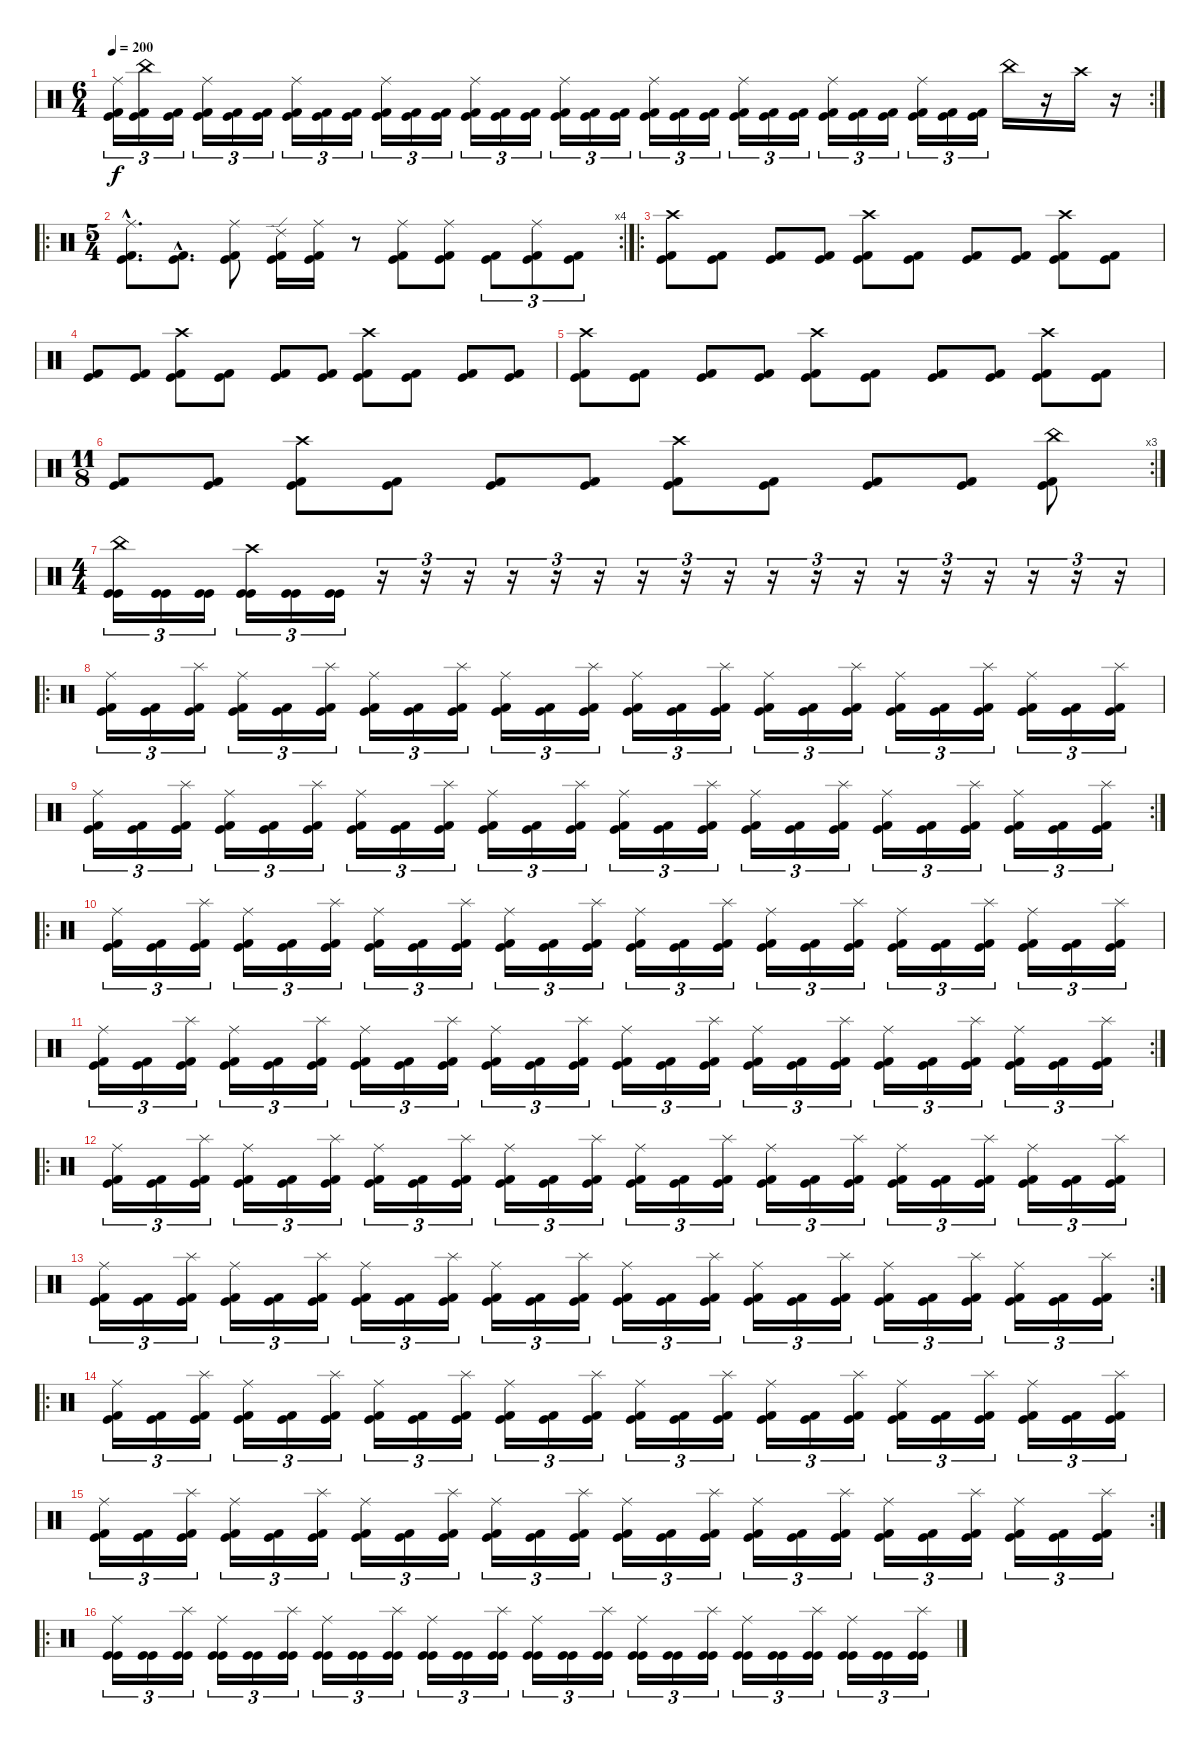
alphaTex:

\track "" {instrument percussion}
\staff {score}
\articulation defaults
\rc 2
\ts (6 4)
\tempo 200
\clef neutral
\ks c
("Ride (middle)" "Kick (hit)" "Kick (hit) 2").16{tu (3 2) dy f} ("China (hit)" "Kick (hit)" "Kick (hit) 2").16{tu (3 2)} ("Kick (hit)" "Kick (hit) 2").16{tu (3 2)} ("Ride (middle)" "Kick (hit)" "Kick (hit) 2").16{tu (3 2)} ("Kick (hit)" "Kick (hit) 2").16{tu (3 2)} ("Kick (hit)" "Kick (hit) 2").16{tu (3 2)} ("Ride (middle)" "Kick (hit)" "Kick (hit) 2").16{tu (3 2)} ("Kick (hit)" "Kick (hit) 2").16{tu (3 2)} ("Kick (hit)" "Kick (hit) 2").16{tu (3 2)} ("Ride (middle)" "Kick (hit)" "Kick (hit) 2").16{tu (3 2)} ("Kick (hit)" "Kick (hit) 2").16{tu (3 2)} ("Kick (hit)" "Kick (hit) 2").16{tu (3 2)} ("Ride (middle)" "Kick (hit)" "Kick (hit) 2").16{tu (3 2)} ("Kick (hit)" "Kick (hit) 2").16{tu (3 2)} ("Kick (hit)" "Kick (hit) 2").16{tu (3 2)} ("Ride (middle)" "Kick (hit)" "Kick (hit) 2").16{tu (3 2)} ("Kick (hit)" "Kick (hit) 2").16{tu (3 2)} ("Kick (hit)" "Kick (hit) 2").16{tu (3 2)} ("Ride (middle)" "Kick (hit)" "Kick (hit) 2").16{tu (3 2)} ("Kick (hit)" "Kick (hit) 2").16{tu (3 2)} ("Kick (hit)" "Kick (hit) 2").16{tu (3 2)} ("Ride (middle)" "Kick (hit)" "Kick (hit) 2").16{tu (3 2)} ("Kick (hit)" "Kick (hit) 2").16{tu (3 2)} ("Kick (hit)" "Kick (hit) 2").16{tu (3 2)} ("Ride (middle)" "Kick (hit)" "Kick (hit) 2").16{tu (3 2)} ("Kick (hit)" "Kick (hit) 2").16{tu (3 2)} ("Kick (hit)" "Kick (hit) 2").16{tu (3 2)} ("Ride (middle)" "Kick (hit)" "Kick (hit) 2").16{tu (3 2)} ("Kick (hit)" "Kick (hit) 2").16{tu (3 2)} ("Kick (hit)" "Kick (hit) 2").16{tu (3 2)} "China (hit)".16 r.16 "Crash high (hit)".16 r.16 |
\ro
\rc 4
\ts (5 4)
("Ride (middle)"{hac} "Kick (hit)"{hac} "Kick (hit) 2"{hac}).8{d} ("Kick (hit)"{hac} "Kick (hit) 2"{hac}).8{d} ("Ride (middle)" "Kick (hit)" "Kick (hit) 2").8 ("Ride (edge) 2" "Kick (hit)" "Kick (hit) 2").16 ("Ride (middle)" "Kick (hit)" "Kick (hit) 2").16 r.8 ("Ride (middle)" "Kick (hit)" "Kick (hit) 2").8 ("Ride (middle)" "Kick (hit)" "Kick (hit) 2").8 ("Kick (hit)" "Kick (hit) 2").8{tu (3 2)} ("Ride (middle)" "Kick (hit)" "Kick (hit) 2").8{tu (3 2)} ("Kick (hit)" "Kick (hit) 2").8{tu (3 2)} |
\ro
("Crash high (hit)" "Kick (hit)" "Kick (hit) 2").8 ("Kick (hit)" "Kick (hit) 2").8 ("Kick (hit)" "Kick (hit) 2").8 ("Kick (hit)" "Kick (hit) 2").8 ("Crash high (hit)" "Kick (hit)" "Kick (hit) 2").8 ("Kick (hit)" "Kick (hit) 2").8 ("Kick (hit)" "Kick (hit) 2").8 ("Kick (hit)" "Kick (hit) 2").8 ("Crash high (hit)" "Kick (hit)" "Kick (hit) 2").8 ("Kick (hit)" "Kick (hit) 2").8 |
("Kick (hit)" "Kick (hit) 2").8 ("Kick (hit)" "Kick (hit) 2").8 ("Crash high (hit)" "Kick (hit)" "Kick (hit) 2").8 ("Kick (hit)" "Kick (hit) 2").8 ("Kick (hit)" "Kick (hit) 2").8 ("Kick (hit)" "Kick (hit) 2").8 ("Crash high (hit)" "Kick (hit)" "Kick (hit) 2").8 ("Kick (hit)" "Kick (hit) 2").8 ("Kick (hit)" "Kick (hit) 2").8 ("Kick (hit)" "Kick (hit) 2").8 |
("Crash high (hit)" "Kick (hit)" "Kick (hit) 2").8 ("Kick (hit)" "Kick (hit) 2").8 ("Kick (hit)" "Kick (hit) 2").8 ("Kick (hit)" "Kick (hit) 2").8 ("Crash high (hit)" "Kick (hit)" "Kick (hit) 2").8 ("Kick (hit)" "Kick (hit) 2").8 ("Kick (hit)" "Kick (hit) 2").8 ("Kick (hit)" "Kick (hit) 2").8 ("Crash high (hit)" "Kick (hit)" "Kick (hit) 2").8 ("Kick (hit)" "Kick (hit) 2").8 |
\rc 3
\ts (11 8)
("Kick (hit)" "Kick (hit) 2").8 ("Kick (hit)" "Kick (hit) 2").8 ("Crash high (hit)" "Kick (hit)" "Kick (hit) 2").8 ("Kick (hit)" "Kick (hit) 2").8 ("Kick (hit)" "Kick (hit) 2").8 ("Kick (hit)" "Kick (hit) 2").8 ("Crash high (hit)" "Kick (hit)" "Kick (hit) 2").8 ("Kick (hit)" "Kick (hit) 2").8 ("Kick (hit)" "Kick (hit) 2").8 ("Kick (hit)" "Kick (hit) 2").8 ("China (hit)" "Kick (hit)" "Kick (hit) 2").8 |
\ts (4 4)
("China (hit)" "Kick (hit)" "Kick (hit)").16{tu (3 2)} ("Kick (hit)" "Kick (hit)").16{tu (3 2)} ("Kick (hit)" "Kick (hit)").16{tu (3 2)} ("Crash high (hit)" "Kick (hit)" "Kick (hit)").16{tu (3 2)} ("Kick (hit)" "Kick (hit)").16{tu (3 2)} ("Kick (hit)" "Kick (hit)").16{tu (3 2)} r.16{tu (3 2)} r.16{tu (3 2)} r.16{tu (3 2)} r.16{tu (3 2)} r.16{tu (3 2)} r.16{tu (3 2)} r.16{tu (3 2)} r.16{tu (3 2)} r.16{tu (3 2)} r.16{tu (3 2)} r.16{tu (3 2)} r.16{tu (3 2)} r.16{tu (3 2)} r.16{tu (3 2)} r.16{tu (3 2)} r.16{tu (3 2)} r.16{tu (3 2)} r.16{tu (3 2)} |
\ro
("Ride (middle)" "Kick (hit)" "Kick (hit) 2").16{tu (3 2)} ("Kick (hit)" "Kick (hit) 2").16{tu (3 2)} ("Splash (hit)" "Kick (hit)" "Kick (hit) 2").16{tu (3 2)} ("Ride (middle)" "Kick (hit)" "Kick (hit) 2").16{tu (3 2)} ("Kick (hit)" "Kick (hit) 2").16{tu (3 2)} ("Splash (hit)" "Kick (hit)" "Kick (hit) 2").16{tu (3 2)} ("Ride (middle)" "Kick (hit)" "Kick (hit) 2").16{tu (3 2)} ("Kick (hit)" "Kick (hit) 2").16{tu (3 2)} ("Splash (hit)" "Kick (hit)" "Kick (hit) 2").16{tu (3 2)} ("Ride (middle)" "Kick (hit)" "Kick (hit) 2").16{tu (3 2)} ("Kick (hit)" "Kick (hit) 2").16{tu (3 2)} ("Splash (hit)" "Kick (hit)" "Kick (hit) 2").16{tu (3 2)} ("Ride (middle)" "Kick (hit)" "Kick (hit) 2").16{tu (3 2)} ("Kick (hit)" "Kick (hit) 2").16{tu (3 2)} ("Splash (hit)" "Kick (hit)" "Kick (hit) 2").16{tu (3 2)} ("Ride (middle)" "Kick (hit)" "Kick (hit) 2").16{tu (3 2)} ("Kick (hit)" "Kick (hit) 2").16{tu (3 2)} ("Splash (hit)" "Kick (hit)" "Kick (hit) 2").16{tu (3 2)} ("Ride (middle)" "Kick (hit)" "Kick (hit) 2").16{tu (3 2)} ("Kick (hit)" "Kick (hit) 2").16{tu (3 2)} ("Splash (hit)" "Kick (hit)" "Kick (hit) 2").16{tu (3 2)} ("Ride (middle)" "Kick (hit)" "Kick (hit) 2").16{tu (3 2)} ("Kick (hit)" "Kick (hit) 2").16{tu (3 2)} ("Splash (hit)" "Kick (hit)" "Kick (hit) 2").16{tu (3 2)} |
\rc 2
("Ride (middle)" "Kick (hit)" "Kick (hit) 2").16{tu (3 2)} ("Kick (hit)" "Kick (hit) 2").16{tu (3 2)} ("Splash (hit)" "Kick (hit)" "Kick (hit) 2").16{tu (3 2)} ("Ride (middle)" "Kick (hit)" "Kick (hit) 2").16{tu (3 2)} ("Kick (hit)" "Kick (hit) 2").16{tu (3 2)} ("Splash (hit)" "Kick (hit)" "Kick (hit) 2").16{tu (3 2)} ("Ride (middle)" "Kick (hit)" "Kick (hit) 2").16{tu (3 2)} ("Kick (hit)" "Kick (hit) 2").16{tu (3 2)} ("Splash (hit)" "Kick (hit)" "Kick (hit) 2").16{tu (3 2)} ("Ride (middle)" "Kick (hit)" "Kick (hit) 2").16{tu (3 2)} ("Kick (hit)" "Kick (hit) 2").16{tu (3 2)} ("Splash (hit)" "Kick (hit)" "Kick (hit) 2").16{tu (3 2)} ("Ride (middle)" "Kick (hit)" "Kick (hit) 2").16{tu (3 2)} ("Kick (hit)" "Kick (hit) 2").16{tu (3 2)} ("Splash (hit)" "Kick (hit)" "Kick (hit) 2").16{tu (3 2)} ("Ride (middle)" "Kick (hit)" "Kick (hit) 2").16{tu (3 2)} ("Kick (hit)" "Kick (hit) 2").16{tu (3 2)} ("Splash (hit)" "Kick (hit)" "Kick (hit) 2").16{tu (3 2)} ("Ride (middle)" "Kick (hit)" "Kick (hit) 2").16{tu (3 2)} ("Kick (hit)" "Kick (hit) 2").16{tu (3 2)} ("Splash (hit)" "Kick (hit)" "Kick (hit) 2").16{tu (3 2)} ("Ride (middle)" "Kick (hit)" "Kick (hit) 2").16{tu (3 2)} ("Kick (hit)" "Kick (hit) 2").16{tu (3 2)} ("Splash (hit)" "Kick (hit)" "Kick (hit) 2").16{tu (3 2)} |
\ro
("Ride (middle)" "Kick (hit)" "Kick (hit) 2").16{tu (3 2)} ("Kick (hit)" "Kick (hit) 2").16{tu (3 2)} ("Splash (hit)" "Kick (hit)" "Kick (hit) 2").16{tu (3 2)} ("Ride (middle)" "Kick (hit)" "Kick (hit) 2").16{tu (3 2)} ("Kick (hit)" "Kick (hit) 2").16{tu (3 2)} ("Splash (hit)" "Kick (hit)" "Kick (hit) 2").16{tu (3 2)} ("Ride (middle)" "Kick (hit)" "Kick (hit) 2").16{tu (3 2)} ("Kick (hit)" "Kick (hit) 2").16{tu (3 2)} ("Splash (hit)" "Kick (hit)" "Kick (hit) 2").16{tu (3 2)} ("Ride (middle)" "Kick (hit)" "Kick (hit) 2").16{tu (3 2)} ("Kick (hit)" "Kick (hit) 2").16{tu (3 2)} ("Splash (hit)" "Kick (hit)" "Kick (hit) 2").16{tu (3 2)} ("Ride (middle)" "Kick (hit)" "Kick (hit) 2").16{tu (3 2)} ("Kick (hit)" "Kick (hit) 2").16{tu (3 2)} ("Splash (hit)" "Kick (hit)" "Kick (hit) 2").16{tu (3 2)} ("Ride (middle)" "Kick (hit)" "Kick (hit) 2").16{tu (3 2)} ("Kick (hit)" "Kick (hit) 2").16{tu (3 2)} ("Splash (hit)" "Kick (hit)" "Kick (hit) 2").16{tu (3 2)} ("Ride (middle)" "Kick (hit)" "Kick (hit) 2").16{tu (3 2)} ("Kick (hit)" "Kick (hit) 2").16{tu (3 2)} ("Splash (hit)" "Kick (hit)" "Kick (hit) 2").16{tu (3 2)} ("Ride (middle)" "Kick (hit)" "Kick (hit) 2").16{tu (3 2)} ("Kick (hit)" "Kick (hit) 2").16{tu (3 2)} ("Splash (hit)" "Kick (hit)" "Kick (hit) 2").16{tu (3 2)} |
\rc 2
("Ride (middle)" "Kick (hit)" "Kick (hit) 2").16{tu (3 2)} ("Kick (hit)" "Kick (hit) 2").16{tu (3 2)} ("Splash (hit)" "Kick (hit)" "Kick (hit) 2").16{tu (3 2)} ("Ride (middle)" "Kick (hit)" "Kick (hit) 2").16{tu (3 2)} ("Kick (hit)" "Kick (hit) 2").16{tu (3 2)} ("Splash (hit)" "Kick (hit)" "Kick (hit) 2").16{tu (3 2)} ("Ride (middle)" "Kick (hit)" "Kick (hit) 2").16{tu (3 2)} ("Kick (hit)" "Kick (hit) 2").16{tu (3 2)} ("Splash (hit)" "Kick (hit)" "Kick (hit) 2").16{tu (3 2)} ("Ride (middle)" "Kick (hit)" "Kick (hit) 2").16{tu (3 2)} ("Kick (hit)" "Kick (hit) 2").16{tu (3 2)} ("Splash (hit)" "Kick (hit)" "Kick (hit) 2").16{tu (3 2)} ("Ride (middle)" "Kick (hit)" "Kick (hit) 2").16{tu (3 2)} ("Kick (hit)" "Kick (hit) 2").16{tu (3 2)} ("Splash (hit)" "Kick (hit)" "Kick (hit) 2").16{tu (3 2)} ("Ride (middle)" "Kick (hit)" "Kick (hit) 2").16{tu (3 2)} ("Kick (hit)" "Kick (hit) 2").16{tu (3 2)} ("Splash (hit)" "Kick (hit)" "Kick (hit) 2").16{tu (3 2)} ("Ride (middle)" "Kick (hit)" "Kick (hit) 2").16{tu (3 2)} ("Kick (hit)" "Kick (hit) 2").16{tu (3 2)} ("Splash (hit)" "Kick (hit)" "Kick (hit) 2").16{tu (3 2)} ("Ride (middle)" "Kick (hit)" "Kick (hit) 2").16{tu (3 2)} ("Kick (hit)" "Kick (hit) 2").16{tu (3 2)} ("Splash (hit)" "Kick (hit)" "Kick (hit) 2").16{tu (3 2)} |
\ro
("Ride (middle)" "Kick (hit)" "Kick (hit) 2").16{tu (3 2)} ("Kick (hit)" "Kick (hit) 2").16{tu (3 2)} ("Splash (hit)" "Kick (hit)" "Kick (hit) 2").16{tu (3 2)} ("Ride (middle)" "Kick (hit)" "Kick (hit) 2").16{tu (3 2)} ("Kick (hit)" "Kick (hit) 2").16{tu (3 2)} ("Splash (hit)" "Kick (hit)" "Kick (hit) 2").16{tu (3 2)} ("Ride (middle)" "Kick (hit)" "Kick (hit) 2").16{tu (3 2)} ("Kick (hit)" "Kick (hit) 2").16{tu (3 2)} ("Splash (hit)" "Kick (hit)" "Kick (hit) 2").16{tu (3 2)} ("Ride (middle)" "Kick (hit)" "Kick (hit) 2").16{tu (3 2)} ("Kick (hit)" "Kick (hit) 2").16{tu (3 2)} ("Splash (hit)" "Kick (hit)" "Kick (hit) 2").16{tu (3 2)} ("Ride (middle)" "Kick (hit)" "Kick (hit) 2").16{tu (3 2)} ("Kick (hit)" "Kick (hit) 2").16{tu (3 2)} ("Splash (hit)" "Kick (hit)" "Kick (hit) 2").16{tu (3 2)} ("Ride (middle)" "Kick (hit)" "Kick (hit) 2").16{tu (3 2)} ("Kick (hit)" "Kick (hit) 2").16{tu (3 2)} ("Splash (hit)" "Kick (hit)" "Kick (hit) 2").16{tu (3 2)} ("Ride (middle)" "Kick (hit)" "Kick (hit) 2").16{tu (3 2)} ("Kick (hit)" "Kick (hit) 2").16{tu (3 2)} ("Splash (hit)" "Kick (hit)" "Kick (hit) 2").16{tu (3 2)} ("Ride (middle)" "Kick (hit)" "Kick (hit) 2").16{tu (3 2)} ("Kick (hit)" "Kick (hit) 2").16{tu (3 2)} ("Splash (hit)" "Kick (hit)" "Kick (hit) 2").16{tu (3 2)} |
\rc 2
("Ride (middle)" "Kick (hit)" "Kick (hit) 2").16{tu (3 2)} ("Kick (hit)" "Kick (hit) 2").16{tu (3 2)} ("Splash (hit)" "Kick (hit)" "Kick (hit) 2").16{tu (3 2)} ("Ride (middle)" "Kick (hit)" "Kick (hit) 2").16{tu (3 2)} ("Kick (hit)" "Kick (hit) 2").16{tu (3 2)} ("Splash (hit)" "Kick (hit)" "Kick (hit) 2").16{tu (3 2)} ("Ride (middle)" "Kick (hit)" "Kick (hit) 2").16{tu (3 2)} ("Kick (hit)" "Kick (hit) 2").16{tu (3 2)} ("Splash (hit)" "Kick (hit)" "Kick (hit) 2").16{tu (3 2)} ("Ride (middle)" "Kick (hit)" "Kick (hit) 2").16{tu (3 2)} ("Kick (hit)" "Kick (hit) 2").16{tu (3 2)} ("Splash (hit)" "Kick (hit)" "Kick (hit) 2").16{tu (3 2)} ("Ride (middle)" "Kick (hit)" "Kick (hit) 2").16{tu (3 2)} ("Kick (hit)" "Kick (hit) 2").16{tu (3 2)} ("Splash (hit)" "Kick (hit)" "Kick (hit) 2").16{tu (3 2)} ("Ride (middle)" "Kick (hit)" "Kick (hit) 2").16{tu (3 2)} ("Kick (hit)" "Kick (hit) 2").16{tu (3 2)} ("Splash (hit)" "Kick (hit)" "Kick (hit) 2").16{tu (3 2)} ("Ride (middle)" "Kick (hit)" "Kick (hit) 2").16{tu (3 2)} ("Kick (hit)" "Kick (hit) 2").16{tu (3 2)} ("Splash (hit)" "Kick (hit)" "Kick (hit) 2").16{tu (3 2)} ("Ride (middle)" "Kick (hit)" "Kick (hit) 2").16{tu (3 2)} ("Kick (hit)" "Kick (hit) 2").16{tu (3 2)} ("Splash (hit)" "Kick (hit)" "Kick (hit) 2").16{tu (3 2)} |
\ro
("Ride (middle)" "Kick (hit)" "Kick (hit) 2").16{tu (3 2)} ("Kick (hit)" "Kick (hit) 2").16{tu (3 2)} ("Splash (hit)" "Kick (hit)" "Kick (hit) 2").16{tu (3 2)} ("Ride (middle)" "Kick (hit)" "Kick (hit) 2").16{tu (3 2)} ("Kick (hit)" "Kick (hit) 2").16{tu (3 2)} ("Splash (hit)" "Kick (hit)" "Kick (hit) 2").16{tu (3 2)} ("Ride (middle)" "Kick (hit)" "Kick (hit) 2").16{tu (3 2)} ("Kick (hit)" "Kick (hit) 2").16{tu (3 2)} ("Splash (hit)" "Kick (hit)" "Kick (hit) 2").16{tu (3 2)} ("Ride (middle)" "Kick (hit)" "Kick (hit) 2").16{tu (3 2)} ("Kick (hit)" "Kick (hit) 2").16{tu (3 2)} ("Splash (hit)" "Kick (hit)" "Kick (hit) 2").16{tu (3 2)} ("Ride (middle)" "Kick (hit)" "Kick (hit) 2").16{tu (3 2)} ("Kick (hit)" "Kick (hit) 2").16{tu (3 2)} ("Splash (hit)" "Kick (hit)" "Kick (hit) 2").16{tu (3 2)} ("Ride (middle)" "Kick (hit)" "Kick (hit) 2").16{tu (3 2)} ("Kick (hit)" "Kick (hit) 2").16{tu (3 2)} ("Splash (hit)" "Kick (hit)" "Kick (hit) 2").16{tu (3 2)} ("Ride (middle)" "Kick (hit)" "Kick (hit) 2").16{tu (3 2)} ("Kick (hit)" "Kick (hit) 2").16{tu (3 2)} ("Splash (hit)" "Kick (hit)" "Kick (hit) 2").16{tu (3 2)} ("Ride (middle)" "Kick (hit)" "Kick (hit) 2").16{tu (3 2)} ("Kick (hit)" "Kick (hit) 2").16{tu (3 2)} ("Splash (hit)" "Kick (hit)" "Kick (hit) 2").16{tu (3 2)} |
\rc 2
("Ride (middle)" "Kick (hit)" "Kick (hit) 2").16{tu (3 2)} ("Kick (hit)" "Kick (hit) 2").16{tu (3 2)} ("Splash (hit)" "Kick (hit)" "Kick (hit) 2").16{tu (3 2)} ("Ride (middle)" "Kick (hit)" "Kick (hit) 2").16{tu (3 2)} ("Kick (hit)" "Kick (hit) 2").16{tu (3 2)} ("Splash (hit)" "Kick (hit)" "Kick (hit) 2").16{tu (3 2)} ("Ride (middle)" "Kick (hit)" "Kick (hit) 2").16{tu (3 2)} ("Kick (hit)" "Kick (hit) 2").16{tu (3 2)} ("Splash (hit)" "Kick (hit)" "Kick (hit) 2").16{tu (3 2)} ("Ride (middle)" "Kick (hit)" "Kick (hit) 2").16{tu (3 2)} ("Kick (hit)" "Kick (hit) 2").16{tu (3 2)} ("Splash (hit)" "Kick (hit)" "Kick (hit) 2").16{tu (3 2)} ("Ride (middle)" "Kick (hit)" "Kick (hit) 2").16{tu (3 2)} ("Kick (hit)" "Kick (hit) 2").16{tu (3 2)} ("Splash (hit)" "Kick (hit)" "Kick (hit) 2").16{tu (3 2)} ("Ride (middle)" "Kick (hit)" "Kick (hit) 2").16{tu (3 2)} ("Kick (hit)" "Kick (hit) 2").16{tu (3 2)} ("Splash (hit)" "Kick (hit)" "Kick (hit) 2").16{tu (3 2)} ("Ride (middle)" "Kick (hit)" "Kick (hit) 2").16{tu (3 2)} ("Kick (hit)" "Kick (hit) 2").16{tu (3 2)} ("Splash (hit)" "Kick (hit)" "Kick (hit) 2").16{tu (3 2)} ("Ride (middle)" "Kick (hit)" "Kick (hit) 2").16{tu (3 2)} ("Kick (hit)" "Kick (hit) 2").16{tu (3 2)} ("Splash (hit)" "Kick (hit)" "Kick (hit) 2").16{tu (3 2)} |
\ro
("Ride (middle)" "Kick (hit)" "Kick (hit)").16{tu (3 2)} ("Kick (hit)" "Kick (hit)").16{tu (3 2)} ("Splash (hit)" "Kick (hit)" "Kick (hit)").16{tu (3 2)} ("Ride (middle)" "Kick (hit)" "Kick (hit)").16{tu (3 2)} ("Kick (hit)" "Kick (hit)").16{tu (3 2)} ("Splash (hit)" "Kick (hit)" "Kick (hit)").16{tu (3 2)} ("Ride (middle)" "Kick (hit)" "Kick (hit)").16{tu (3 2)} ("Kick (hit)" "Kick (hit)").16{tu (3 2)} ("Splash (hit)" "Kick (hit)" "Kick (hit)").16{tu (3 2)} ("Ride (middle)" "Kick (hit)" "Kick (hit)").16{tu (3 2)} ("Kick (hit)" "Kick (hit)").16{tu (3 2)} ("Splash (hit)" "Kick (hit)" "Kick (hit)").16{tu (3 2)} ("Ride (middle)" "Kick (hit)" "Kick (hit)").16{tu (3 2)} ("Kick (hit)" "Kick (hit)").16{tu (3 2)} ("Splash (hit)" "Kick (hit)" "Kick (hit)").16{tu (3 2)} ("Ride (middle)" "Kick (hit)" "Kick (hit)").16{tu (3 2)} ("Kick (hit)" "Kick (hit)").16{tu (3 2)} ("Splash (hit)" "Kick (hit)" "Kick (hit)").16{tu (3 2)} ("Ride (middle)" "Kick (hit)" "Kick (hit)").16{tu (3 2)} ("Kick (hit)" "Kick (hit)").16{tu (3 2)} ("Splash (hit)" "Kick (hit)" "Kick (hit)").16{tu (3 2)} ("Ride (middle)" "Kick (hit)" "Kick (hit)").16{tu (3 2)} ("Kick (hit)" "Kick (hit)").16{tu (3 2)} ("Splash (hit)" "Kick (hit)" "Kick (hit)").16{tu (3 2)}
